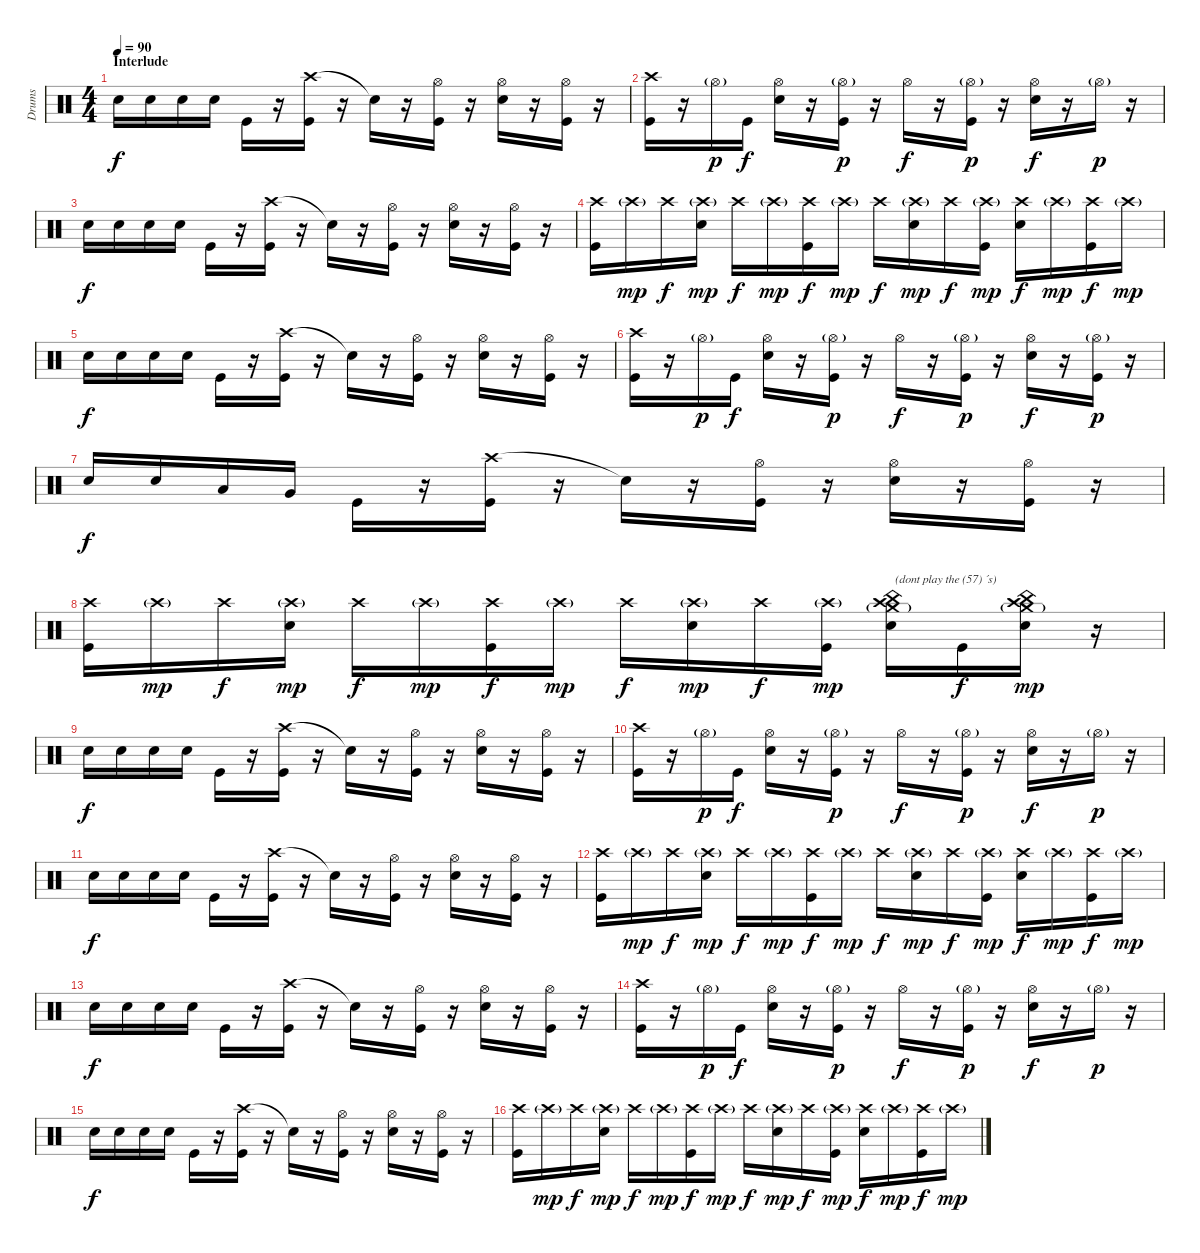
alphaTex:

\track ("Drums" "Drums") {instrument percussion}
\staff {score}
\articulation defaults
\ts (4 4)
\section ("" "Interlude")
\tempo 90
\clef neutral
\ks c "Snare (hit) 2".16{dy f} "Snare (hit) 2".16 "Snare (hit) 2".16 "Snare (hit) 2".16 "Kick (hit)".16
r.16 ("Crash high (hit)" "Kick (hit)").16 r.16 "Snare (hit)"{t}.16 r.16 ("Hi-Hat (open)" "Kick (hit)").16 r.16 ("Hi-Hat (open)" "Snare (hit) 2").16 r.16 ("Hi-Hat (open)" "Kick (hit)").16 r.16 |
("Crash high (hit)" "Kick (hit)").16 r.16 "Hi-Hat (open)"{g}.16{dy p} "Kick (hit)".16{dy f} ("Hi-Hat (open)" "Snare (hit) 2").16 r.16 ("Hi-Hat (open)"{g} "Kick (hit)").16{dy p} r.16 "Hi-Hat (open)".16{dy f} r.16 ("Hi-Hat (open)"{g} "Kick (hit)").16{dy p} r.16 ("Hi-Hat (open)" "Snare (hit) 2").16{dy f} r.16 "Hi-Hat (open)"{g}.16{dy p} r.16 |
"Snare (hit) 2".16{dy f} "Snare (hit) 2".16 "Snare (hit) 2".16 "Snare (hit) 2".16 "Kick (hit)".16 r.16 ("Crash high (hit)" "Kick (hit)").16 r.16 "Snare (hit)"{t}.16 r.16 ("Hi-Hat (open)" "Kick (hit)").16 r.16 ("Hi-Hat (open)" "Snare (hit) 2").16 r.16 ("Hi-Hat (open)" "Kick (hit)").16 r.16 |
("Crash high (hit)" "Kick (hit)").16 "Crash high (hit)"{g}.16{dy mp} "Crash high (hit)".16{dy f} ("Crash high (hit)"{g} "Snare (hit) 2").16{dy mp} "Crash high (hit)".16{dy f} "Crash high (hit)"{g}.16{dy mp} ("Crash high (hit)" "Kick (hit)").16{dy f} "Crash high (hit)"{g}.16{dy mp} "Crash high (hit)".16{dy f} ("Crash high (hit)"{g} "Snare (hit) 2").16{dy mp} "Crash high (hit)".16{dy f} ("Crash high (hit)"{g} "Kick (hit)").16{dy mp} ("Crash high (hit)" "Snare (hit) 2").16{dy f} "Crash high (hit)"{g}.16{dy mp} ("Crash high (hit)" "Kick (hit)").16{dy f} "Crash high (hit)"{g}.16{dy mp} |
"Snare (hit) 2".16{dy f} "Snare (hit) 2".16 "Snare (hit) 2".16 "Snare (hit) 2".16 "Kick (hit)".16 r.16 ("Crash high (hit)" "Kick (hit)").16 r.16 "Snare (hit)"{t}.16 r.16 ("Hi-Hat (open)" "Kick (hit)").16 r.16 ("Hi-Hat (open)" "Snare (hit) 2").16 r.16 ("Hi-Hat (open)" "Kick (hit)").16 r.16 |
("Crash high (hit)" "Kick (hit)").16 r.16 "Hi-Hat (open)"{g}.16{dy p} "Kick (hit)".16{dy f} ("Hi-Hat (open)" "Snare (hit) 2").16 r.16 ("Hi-Hat (open)"{g} "Kick (hit)").16{dy p} r.16 "Hi-Hat (open)".16{dy f} r.16 ("Hi-Hat (open)"{g} "Kick (hit)").16{dy p} r.16 ("Hi-Hat (open)" "Snare (hit) 2").16{dy f} r.16 ("Hi-Hat (open)"{g} "Kick (hit)").16{dy p} r.16 |
"Snare (hit) 2".16{dy f} "Snare (hit) 2".16 "Low Tom (hit)".16 "Very Low Tom (hit)".16 "Kick (hit)".16 r.16 ("Crash high (hit)" "Kick (hit)").16 r.16 "Snare (hit)"{t}.16 r.16 ("Hi-Hat (open)" "Kick (hit)").16 r.16 ("Hi-Hat (open)" "Snare (hit) 2").16 r.16 ("Hi-Hat (open)" "Kick (hit)").16 r.16 |
("Crash high (hit)" "Kick (hit)").16 "Crash high (hit)"{g}.16{dy mp} "Crash high (hit)".16{dy f} ("Crash high (hit)"{g} "Snare (hit) 2").16{dy mp} "Crash high (hit)".16{dy f} "Crash high (hit)"{g}.16{dy mp} ("Crash high (hit)" "Kick (hit)").16{dy f} "Crash high (hit)"{g}.16{dy mp} "Crash high (hit)".16{dy f} ("Crash high (hit)"{g} "Snare (hit) 2").16{dy mp} "Crash high (hit)".16{dy f} ("Crash high (hit)"{g} "Kick (hit)").16{dy mp} ("China (hit)" "Crash medium (hit)"{g} "Crash high (hit)" "Snare (hit) 2").16{txt "(dont play the (57) ´s)"} "Kick (hit)".16{dy f} ("China (hit)" "Crash medium (hit)"{g} "Crash high (hit)" "Snare (hit) 2").16{dy mp} r.16 |
"Snare (hit) 2".16{dy f} "Snare (hit) 2".16 "Snare (hit) 2".16 "Snare (hit) 2".16 "Kick (hit)".16 r.16 ("Crash high (hit)" "Kick (hit)").16 r.16 "Snare (hit)"{t}.16 r.16 ("Hi-Hat (open)" "Kick (hit)").16 r.16 ("Hi-Hat (open)" "Snare (hit) 2").16 r.16 ("Hi-Hat (open)" "Kick (hit)").16 r.16 |
("Crash high (hit)" "Kick (hit)").16 r.16 "Hi-Hat (open)"{g}.16{dy p} "Kick (hit)".16{dy f} ("Hi-Hat (open)" "Snare (hit) 2").16 r.16 ("Hi-Hat (open)"{g} "Kick (hit)").16{dy p} r.16 "Hi-Hat (open)".16{dy f} r.16 ("Hi-Hat (open)"{g} "Kick (hit)").16{dy p} r.16 ("Hi-Hat (open)" "Snare (hit) 2").16{dy f} r.16 "Hi-Hat (open)"{g}.16{dy p} r.16 |
"Snare (hit) 2".16{dy f} "Snare (hit) 2".16 "Snare (hit) 2".16 "Snare (hit) 2".16 "Kick (hit)".16 r.16 ("Crash high (hit)" "Kick (hit)").16 r.16 "Snare (hit)"{t}.16 r.16 ("Hi-Hat (open)" "Kick (hit)").16 r.16 ("Hi-Hat (open)" "Snare (hit) 2").16 r.16 ("Hi-Hat (open)" "Kick (hit)").16 r.16 |
("Crash high (hit)" "Kick (hit)").16 "Crash high (hit)"{g}.16{dy mp} "Crash high (hit)".16{dy f} ("Crash high (hit)"{g} "Snare (hit) 2").16{dy mp} "Crash high (hit)".16{dy f} "Crash high (hit)"{g}.16{dy mp} ("Crash high (hit)" "Kick (hit)").16{dy f} "Crash high (hit)"{g}.16{dy mp} "Crash high (hit)".16{dy f} ("Crash high (hit)"{g} "Snare (hit) 2").16{dy mp} "Crash high (hit)".16{dy f} ("Crash high (hit)"{g} "Kick (hit)").16{dy mp} ("Crash high (hit)" "Snare (hit) 2").16{dy f} "Crash high (hit)"{g}.16{dy mp} ("Crash high (hit)" "Kick (hit)").16{dy f} "Crash high (hit)"{g}.16{dy mp} |
"Snare (hit) 2".16{dy f} "Snare (hit) 2".16 "Snare (hit) 2".16 "Snare (hit) 2".16 "Kick (hit)".16 r.16 ("Crash high (hit)" "Kick (hit)").16 r.16 "Snare (hit)"{t}.16 r.16 ("Hi-Hat (open)" "Kick (hit)").16 r.16 ("Hi-Hat (open)" "Snare (hit) 2").16 r.16 ("Hi-Hat (open)" "Kick (hit)").16 r.16 |
("Crash high (hit)" "Kick (hit)").16 r.16 "Hi-Hat (open)"{g}.16{dy p} "Kick (hit)".16{dy f} ("Hi-Hat (open)" "Snare (hit) 2").16 r.16 ("Hi-Hat (open)"{g} "Kick (hit)").16{dy p} r.16 "Hi-Hat (open)".16{dy f} r.16 ("Hi-Hat (open)"{g} "Kick (hit)").16{dy p} r.16 ("Hi-Hat (open)" "Snare (hit) 2").16{dy f} r.16 "Hi-Hat (open)"{g}.16{dy p} r.16 |
"Snare (hit) 2".16{dy f} "Snare (hit) 2".16 "Snare (hit) 2".16 "Snare (hit) 2".16 "Kick (hit)".16 r.16 ("Crash high (hit)" "Kick (hit)").16 r.16 "Snare (hit)"{t}.16 r.16 ("Hi-Hat (open)" "Kick (hit)").16 r.16 ("Hi-Hat (open)" "Snare (hit) 2").16 r.16 ("Hi-Hat (open)" "Kick (hit)").16 r.16 |
("Crash high (hit)" "Kick (hit)").16 "Crash high (hit)"{g}.16{dy mp} "Crash high (hit)".16{dy f} ("Crash high (hit)"{g} "Snare (hit) 2").16{dy mp} "Crash high (hit)".16{dy f} "Crash high (hit)"{g}.16{dy mp} ("Crash high (hit)" "Kick (hit)").16{dy f} "Crash high (hit)"{g}.16{dy mp} "Crash high (hit)".16{dy f} ("Crash high (hit)"{g} "Snare (hit) 2").16{dy mp} "Crash high (hit)".16{dy f} ("Crash high (hit)"{g} "Kick (hit)").16{dy mp} ("Crash high (hit)" "Snare (hit) 2").16{dy f} "Crash high (hit)"{g}.16{dy mp} ("Crash high (hit)" "Kick (hit)").16{dy f} "Crash high (hit)"{g}.16{dy mp}
